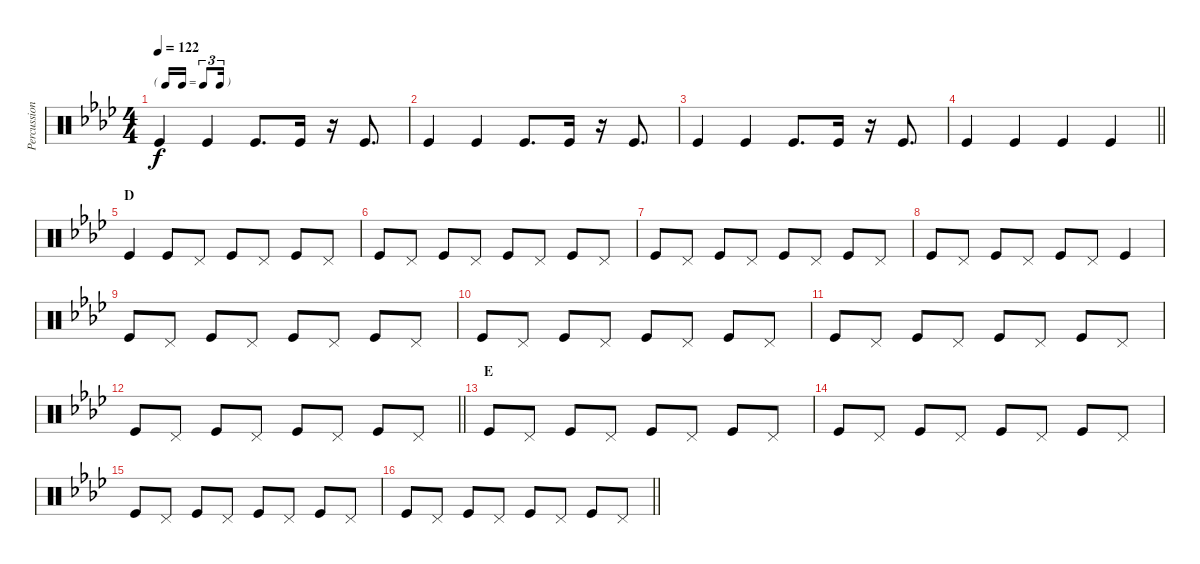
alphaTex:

\track ("Percussion Foot" "Percussion") {instrument percussion}
\staff {score}
\articulation defaults
\ts (4 4)
\tf triplet16th
\tempo 122
\clef neutral
\ks ab "Kick (hit)".4{dy f} "Kick (hit)".4 "Kick (hit)".8{d} "Kick (hit)".16
r.16 "Kick (hit)".8{d} |
"Kick (hit)".4 "Kick (hit)".4 "Kick (hit)".8{d} "Kick (hit)".16 r.16 "Kick (hit)".8{d} |
"Kick (hit)".4 "Kick (hit)".4 "Kick (hit)".8{d} "Kick (hit)".16 r.16 "Kick (hit)".8{d} |
\barLineRight lightlight "Kick (hit)".4 "Kick (hit)".4 "Kick (hit)".4 "Kick (hit)".4
|
\section ("" "D")
"Kick (hit)".4 "Kick (hit)".8 "Pedal Hi-Hat (hit)".8 "Kick (hit)".8 "Pedal Hi-Hat (hit)".8 "Kick (hit)".8 "Pedal Hi-Hat (hit)".8 |
"Kick (hit)".8 "Pedal Hi-Hat (hit)".8 "Kick (hit)".8 "Pedal Hi-Hat (hit)".8 "Kick (hit)".8 "Pedal Hi-Hat (hit)".8 "Kick (hit)".8 "Pedal Hi-Hat (hit)".8 |
"Kick (hit)".8 "Pedal Hi-Hat (hit)".8 "Kick (hit)".8 "Pedal Hi-Hat (hit)".8 "Kick (hit)".8 "Pedal Hi-Hat (hit)".8 "Kick (hit)".8 "Pedal Hi-Hat (hit)".8 |
"Kick (hit)".8 "Pedal Hi-Hat (hit)".8 "Kick (hit)".8 "Pedal Hi-Hat (hit)".8 "Kick (hit)".8 "Pedal Hi-Hat (hit)".8 "Kick (hit)".4 |
"Kick (hit)".8 "Pedal Hi-Hat (hit)".8 "Kick (hit)".8 "Pedal Hi-Hat (hit)".8 "Kick (hit)".8 "Pedal Hi-Hat (hit)".8 "Kick (hit)".8 "Pedal Hi-Hat (hit)".8 |
"Kick (hit)".8 "Pedal Hi-Hat (hit)".8 "Kick (hit)".8 "Pedal Hi-Hat (hit)".8 "Kick (hit)".8 "Pedal Hi-Hat (hit)".8 "Kick (hit)".8 "Pedal Hi-Hat (hit)".8 |
"Kick (hit)".8 "Pedal Hi-Hat (hit)".8 "Kick (hit)".8 "Pedal Hi-Hat (hit)".8 "Kick (hit)".8 "Pedal Hi-Hat (hit)".8 "Kick (hit)".8 "Pedal Hi-Hat (hit)".8 |
\barLineRight lightlight "Kick (hit)".8 "Pedal Hi-Hat (hit)".8 "Kick (hit)".8 "Pedal Hi-Hat (hit)".8 "Kick (hit)".8 "Pedal Hi-Hat (hit)".8 "Kick (hit)".8 "Pedal Hi-Hat (hit)".8
|
\section ("" "E")
"Kick (hit)".8 "Pedal Hi-Hat (hit)".8 "Kick (hit)".8 "Pedal Hi-Hat (hit)".8 "Kick (hit)".8 "Pedal Hi-Hat (hit)".8 "Kick (hit)".8 "Pedal Hi-Hat (hit)".8 |
"Kick (hit)".8 "Pedal Hi-Hat (hit)".8 "Kick (hit)".8 "Pedal Hi-Hat (hit)".8 "Kick (hit)".8 "Pedal Hi-Hat (hit)".8 "Kick (hit)".8 "Pedal Hi-Hat (hit)".8 |
"Kick (hit)".8 "Pedal Hi-Hat (hit)".8 "Kick (hit)".8 "Pedal Hi-Hat (hit)".8 "Kick (hit)".8 "Pedal Hi-Hat (hit)".8 "Kick (hit)".8 "Pedal Hi-Hat (hit)".8 |
\barLineRight lightlight "Kick (hit)".8 "Pedal Hi-Hat (hit)".8 "Kick (hit)".8 "Pedal Hi-Hat (hit)".8 "Kick (hit)".8 "Pedal Hi-Hat (hit)".8 "Kick (hit)".8 "Pedal Hi-Hat (hit)".8
